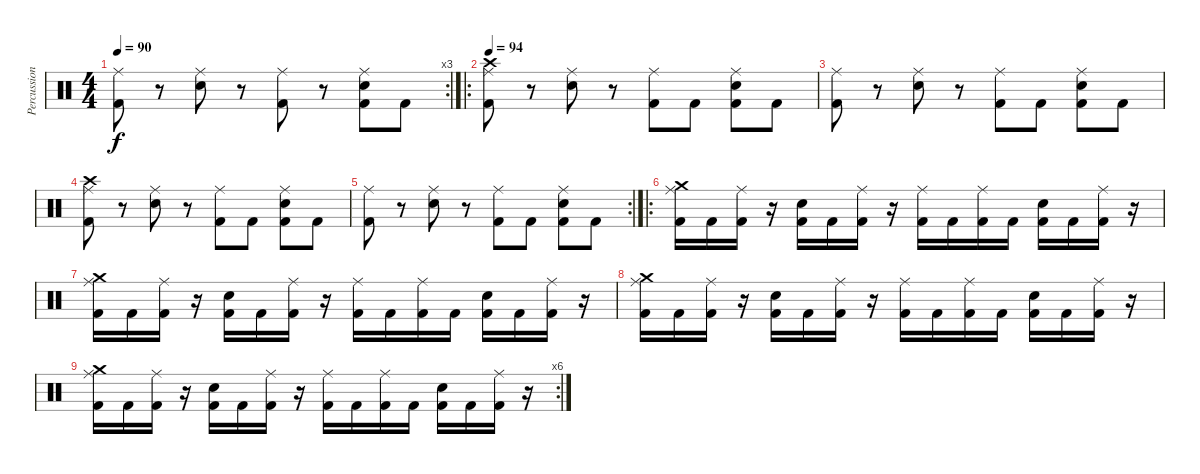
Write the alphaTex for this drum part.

\track ("Percussion" "Percussion") {instrument percussion}
\staff {score}
\articulation defaults
\rc 3
\ts (4 4)
\tempo 90
\clef neutral
\ks c
("Ride (middle)" "Kick (hit) 2").8{dy f} r.8 ("Ride (middle)" "Snare (hit) 2").8 r.8 ("Ride (middle)" "Kick (hit) 2").8 r.8 ("Ride (middle)" "Snare (hit) 2" "Kick (hit) 2").8 "Kick (hit) 2".8 |
\ro
\tempo 94
("Ride (middle)" "Crash high (hit)" "Kick (hit) 2").8 r.8 ("Ride (middle)" "Snare (hit) 2").8 r.8 ("Ride (middle)" "Kick (hit) 2").8 "Kick (hit) 2".8 ("Ride (middle)" "Snare (hit) 2" "Kick (hit) 2").8 "Kick (hit) 2".8 |
("Ride (middle)" "Kick (hit) 2").8 r.8 ("Ride (middle)" "Snare (hit) 2").8 r.8 ("Ride (middle)" "Kick (hit) 2").8 "Kick (hit) 2".8 ("Ride (middle)" "Snare (hit) 2" "Kick (hit) 2").8 "Kick (hit) 2".8 |
("Ride (middle)" "Crash high (hit)" "Kick (hit) 2").8 r.8 ("Ride (middle)" "Snare (hit) 2").8 r.8 ("Ride (middle)" "Kick (hit) 2").8 "Kick (hit) 2".8 ("Ride (middle)" "Snare (hit) 2" "Kick (hit) 2").8 "Kick (hit) 2".8 |
\rc 2
("Ride (middle)" "Kick (hit) 2").8 r.8 ("Ride (middle)" "Snare (hit) 2").8 r.8 ("Ride (middle)" "Kick (hit) 2").8 "Kick (hit) 2".8 ("Ride (middle)" "Snare (hit) 2" "Kick (hit) 2").8 "Kick (hit) 2".8 |
\ro
("Ride (middle)" "Crash medium (hit)" "Kick (hit) 2").16 "Kick (hit) 2".16 ("Ride (middle)" "Kick (hit) 2").16 r.16 ("Snare (hit) 2" "Kick (hit) 2").16 "Kick (hit) 2".16 ("Ride (middle)" "Kick (hit) 2").16 r.16 ("Ride (middle)" "Kick (hit) 2").16 "Kick (hit) 2".16 ("Ride (middle)" "Kick (hit) 2").16 "Kick (hit) 2".16 ("Snare (hit) 2" "Kick (hit) 2").16 "Kick (hit) 2".16 ("Ride (middle)" "Kick (hit) 2").16 r.16 |
("Ride (middle)" "Crash medium (hit)" "Kick (hit) 2").16 "Kick (hit) 2".16 ("Ride (middle)" "Kick (hit) 2").16 r.16 ("Snare (hit) 2" "Kick (hit) 2").16 "Kick (hit) 2".16 ("Ride (middle)" "Kick (hit) 2").16 r.16 ("Ride (middle)" "Kick (hit) 2").16 "Kick (hit) 2".16 ("Ride (middle)" "Kick (hit) 2").16 "Kick (hit) 2".16 ("Snare (hit) 2" "Kick (hit) 2").16 "Kick (hit) 2".16 ("Ride (middle)" "Kick (hit) 2").16 r.16 |
("Ride (middle)" "Crash medium (hit)" "Kick (hit) 2").16 "Kick (hit) 2".16 ("Ride (middle)" "Kick (hit) 2").16 r.16 ("Snare (hit) 2" "Kick (hit) 2").16 "Kick (hit) 2".16 ("Ride (middle)" "Kick (hit) 2").16 r.16 ("Ride (middle)" "Kick (hit) 2").16 "Kick (hit) 2".16 ("Ride (middle)" "Kick (hit) 2").16 "Kick (hit) 2".16 ("Snare (hit) 2" "Kick (hit) 2").16 "Kick (hit) 2".16 ("Ride (middle)" "Kick (hit) 2").16 r.16 |
\rc 6
("Ride (middle)" "Crash medium (hit)" "Kick (hit) 2").16 "Kick (hit) 2".16 ("Ride (middle)" "Kick (hit) 2").16 r.16 ("Snare (hit) 2" "Kick (hit) 2").16 "Kick (hit) 2".16 ("Ride (middle)" "Kick (hit) 2").16 r.16 ("Ride (middle)" "Kick (hit) 2").16 "Kick (hit) 2".16 ("Ride (middle)" "Kick (hit) 2").16 "Kick (hit) 2".16 ("Snare (hit) 2" "Kick (hit) 2").16 "Kick (hit) 2".16 ("Ride (middle)" "Kick (hit) 2").16 r.16
